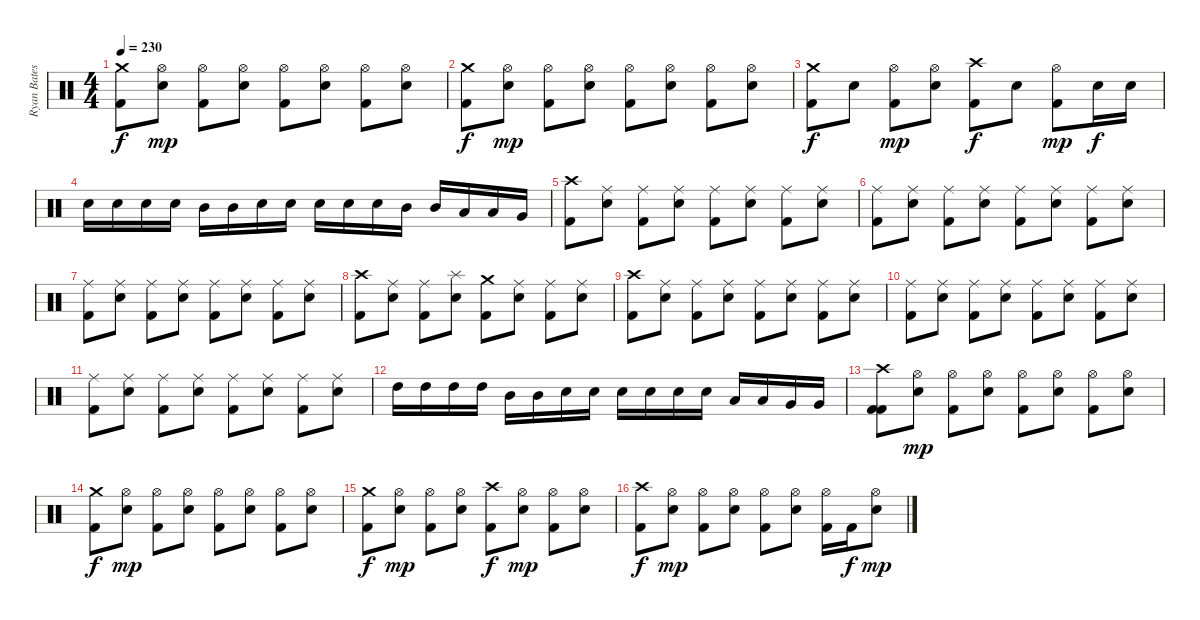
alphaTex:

\track ("Ryan Bates" "Ryan Bates") {instrument percussion}
\staff {score}
\articulation defaults
\ts (4 4)
\tempo 230
\clef neutral
\ks c
("Crash medium (hit)" "Kick (hit) 2").8{dy f} ("Hi-Hat (open)" "Electric Snare (hit)").8{dy mp} ("Hi-Hat (open)" "Kick (hit) 2").8 ("Hi-Hat (open)" "Electric Snare (hit)").8 ("Hi-Hat (open)" "Kick (hit) 2").8 ("Hi-Hat (open)" "Electric Snare (hit)").8 ("Hi-Hat (open)" "Kick (hit) 2").8 ("Hi-Hat (open)" "Electric Snare (hit)").8 |
("Crash medium (hit)" "Kick (hit) 2").8{dy f} ("Hi-Hat (open)" "Electric Snare (hit)").8{dy mp} ("Hi-Hat (open)" "Kick (hit) 2").8 ("Hi-Hat (open)" "Electric Snare (hit)").8 ("Hi-Hat (open)" "Kick (hit) 2").8 ("Hi-Hat (open)" "Electric Snare (hit)").8 ("Hi-Hat (open)" "Kick (hit) 2").8 ("Hi-Hat (open)" "Electric Snare (hit)").8 |
("Crash medium (hit)" "Kick (hit) 2").8{dy f} "Electric Snare (hit)".8 ("Hi-Hat (open)" "Kick (hit) 2").8{dy mp} ("Hi-Hat (open)" "Electric Snare (hit)").8 ("Crash high (hit)" "Kick (hit) 2").8{dy f} "Electric Snare (hit)".8 ("Hi-Hat (open)" "Kick (hit) 2").8{dy mp} "Electric Snare (hit)".16{dy f} "Electric Snare (hit)".16 |
"Electric Snare (hit)".16 "Electric Snare (hit)".16 "Electric Snare (hit)".16 "Electric Snare (hit)".16 "Mid Tom (hit)".16 "Mid Tom (hit)".16 "Electric Snare (hit)".16 "Electric Snare (hit)".16 "Electric Snare (hit)".16 "Electric Snare (hit)".16 "Electric Snare (hit)".16 "Mid Tom (hit)".16 "Mid Tom (hit)".16 "Low Tom (hit)".16 "Low Tom (hit)".16 "Very Low Tom (hit)".16 |
("Crash high (hit)" "Kick (hit) 2").8 ("Ride (middle)" "Electric Snare (hit)").8 ("Ride (middle)" "Kick (hit) 2").8 ("Ride (middle)" "Electric Snare (hit)").8 ("Ride (middle)" "Kick (hit) 2").8 ("Ride (middle)" "Electric Snare (hit)").8 ("Ride (middle)" "Kick (hit) 2").8 ("Ride (middle)" "Electric Snare (hit)").8 |
("Ride (middle)" "Kick (hit) 2").8 ("Ride (middle)" "Electric Snare (hit)").8 ("Ride (middle)" "Kick (hit) 2").8 ("Ride (middle)" "Electric Snare (hit)").8 ("Ride (middle)" "Kick (hit) 2").8 ("Ride (middle)" "Electric Snare (hit)").8 ("Ride (middle)" "Kick (hit) 2").8 ("Ride (middle)" "Electric Snare (hit)").8 |
("Ride (middle)" "Kick (hit) 2").8 ("Ride (middle)" "Electric Snare (hit)").8 ("Ride (middle)" "Kick (hit) 2").8 ("Ride (middle)" "Electric Snare (hit)").8 ("Ride (middle)" "Kick (hit) 2").8 ("Ride (middle)" "Electric Snare (hit)").8 ("Ride (middle)" "Kick (hit) 2").8 ("Ride (middle)" "Electric Snare (hit)").8 |
("Crash high (hit)" "Kick (hit) 2").8 ("Ride (middle)" "Electric Snare (hit)").8 ("Ride (middle)" "Kick (hit) 2").8 ("Splash (hit)" "Electric Snare (hit)").8 ("Crash medium (hit)" "Kick (hit) 2").8 ("Ride (middle)" "Electric Snare (hit)").8 ("Ride (middle)" "Kick (hit) 2").8 ("Ride (middle)" "Electric Snare (hit)").8 |
("Crash high (hit)" "Kick (hit) 2").8 ("Ride (middle)" "Electric Snare (hit)").8 ("Ride (middle)" "Kick (hit) 2").8 ("Ride (middle)" "Electric Snare (hit)").8 ("Ride (middle)" "Kick (hit) 2").8 ("Ride (middle)" "Electric Snare (hit)").8 ("Ride (middle)" "Kick (hit) 2").8 ("Ride (middle)" "Electric Snare (hit)").8 |
("Ride (middle)" "Kick (hit) 2").8 ("Ride (middle)" "Electric Snare (hit)").8 ("Ride (middle)" "Kick (hit) 2").8 ("Ride (middle)" "Electric Snare (hit)").8 ("Ride (middle)" "Kick (hit) 2").8 ("Ride (middle)" "Electric Snare (hit)").8 ("Ride (middle)" "Kick (hit) 2").8 ("Ride (middle)" "Electric Snare (hit)").8 |
("Ride (middle)" "Kick (hit) 2").8 ("Ride (middle)" "Electric Snare (hit)").8 ("Ride (middle)" "Kick (hit) 2").8 ("Ride (middle)" "Electric Snare (hit)").8 ("Ride (middle)" "Kick (hit) 2").8 ("Ride (middle)" "Electric Snare (hit)").8 ("Ride (middle)" "Kick (hit) 2").8 ("Ride (middle)" "Electric Snare (hit)").8 |
"High Tom (hit)".16 "High Tom (hit)".16 "High Tom (hit)".16 "High Tom (hit)".16 "Mid Tom (hit)".16 "Mid Tom (hit)".16 "Electric Snare (hit)".16 "Electric Snare (hit)".16 "Electric Snare (hit)".16 "Electric Snare (hit)".16 "Electric Snare (hit)".16 "Electric Snare (hit)".16 "Low Tom (hit)".16 "Low Tom (hit)".16 "Very Low Tom (hit)".16 "Very Low Tom (hit)".16 |
("Crash high (hit)" "Kick (hit) 2" "Kick (hit) 2").8 ("Hi-Hat (open)" "Electric Snare (hit)").8{dy mp} ("Hi-Hat (open)" "Kick (hit) 2").8 ("Hi-Hat (open)" "Electric Snare (hit)").8 ("Hi-Hat (open)" "Kick (hit) 2").8 ("Hi-Hat (open)" "Electric Snare (hit)").8 ("Hi-Hat (open)" "Kick (hit) 2").8 ("Hi-Hat (open)" "Electric Snare (hit)").8 |
("Crash medium (hit)" "Kick (hit) 2").8{dy f} ("Hi-Hat (open)" "Electric Snare (hit)").8{dy mp} ("Hi-Hat (open)" "Kick (hit) 2").8 ("Hi-Hat (open)" "Electric Snare (hit)").8 ("Hi-Hat (open)" "Kick (hit) 2").8 ("Hi-Hat (open)" "Electric Snare (hit)").8 ("Hi-Hat (open)" "Kick (hit) 2").8 ("Hi-Hat (open)" "Electric Snare (hit)").8 |
("Crash medium (hit)" "Kick (hit) 2").8{dy f} ("Hi-Hat (open)" "Electric Snare (hit)").8{dy mp} ("Hi-Hat (open)" "Kick (hit) 2").8 ("Hi-Hat (open)" "Electric Snare (hit)").8 ("Crash high (hit)" "Kick (hit) 2").8{dy f} ("Hi-Hat (open)" "Electric Snare (hit)").8{dy mp} ("Hi-Hat (open)" "Kick (hit) 2").8 ("Hi-Hat (open)" "Electric Snare (hit)").8 |
("Crash high (hit)" "Kick (hit) 2").8{dy f} ("Hi-Hat (open)" "Electric Snare (hit)").8{dy mp} ("Hi-Hat (open)" "Kick (hit) 2").8 ("Hi-Hat (open)" "Electric Snare (hit)").8 ("Hi-Hat (open)" "Kick (hit) 2").8 ("Hi-Hat (open)" "Electric Snare (hit)").8 ("Hi-Hat (open)" "Kick (hit) 2").16 "Kick (hit) 2".16{dy f} ("Hi-Hat (open)" "Electric Snare (hit)").8{dy mp}
